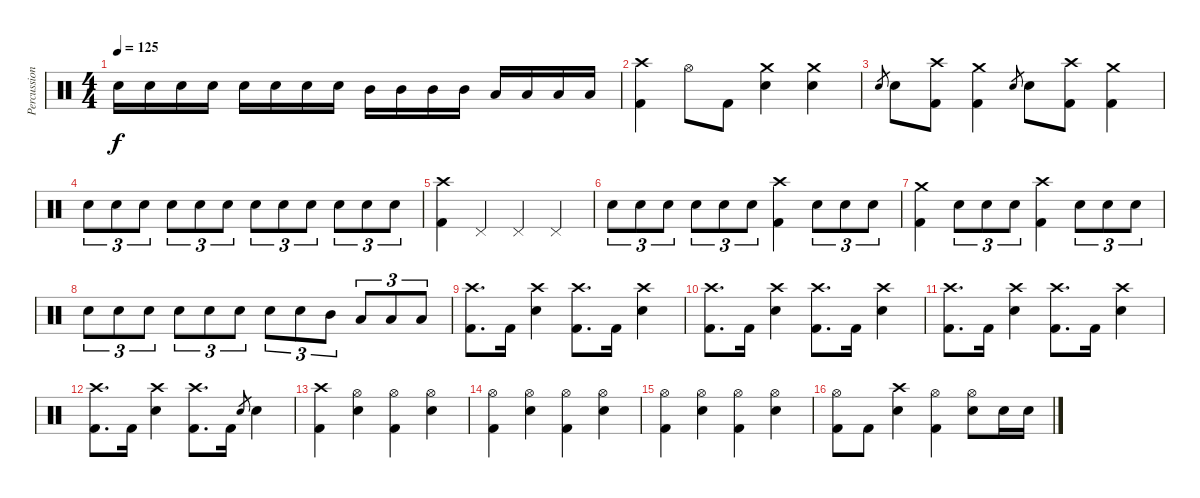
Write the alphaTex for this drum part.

\track ("Percussion" "Percussion") {instrument percussion}
\staff {score}
\articulation defaults
\ts (4 4)
\tempo 125
\clef neutral
\ks c "Electric Snare (hit)".16{dy f} "Electric Snare (hit)".16 "Electric Snare (hit)".16 "Electric Snare (hit)".16 "Electric Snare (hit)".16 "Electric Snare (hit)".16 "Electric Snare (hit)".16 "Electric Snare (hit)".16 "Mid Tom (hit)".16 "Mid Tom (hit)".16 "Mid Tom (hit)".16 "Mid Tom (hit)".16 "Low Tom (hit)".16 "Low Tom (hit)".16 "Low Tom (hit)".16 "Low Tom (hit)".16
|
("Kick (hit) 2" "Crash high (hit)").4 "Hi-Hat (open)".8 "Kick (hit) 2".8 ("Electric Snare (hit)" "Crash medium (hit)").4 ("Electric Snare (hit)" "Crash medium (hit)").4 |
"Electric Snare (hit)".8{gr} "Electric Snare (hit)".8 ("Kick (hit) 2" "Crash high (hit)").8 ("Kick (hit) 2" "Crash medium (hit)").4 "Electric Snare (hit)".8{gr} "Electric Snare (hit)".8 ("Kick (hit) 2" "Crash high (hit)").8 ("Kick (hit) 2" "Crash medium (hit)").4 |
"Electric Snare (hit)".8{tu (3 2)} "Electric Snare (hit)".8{tu (3 2)} "Electric Snare (hit)".8{tu (3 2)} "Electric Snare (hit)".8{tu (3 2)} "Electric Snare (hit)".8{tu (3 2)} "Electric Snare (hit)".8{tu (3 2)} "Electric Snare (hit)".8{tu (3 2)} "Electric Snare (hit)".8{tu (3 2)} "Electric Snare (hit)".8{tu (3 2)} "Electric Snare (hit)".8{tu (3 2)} "Electric Snare (hit)".8{tu (3 2)} "Electric Snare (hit)".8{tu (3 2)} |
("Kick (hit) 2" "Crash high (hit)").4 "Pedal Hi-Hat (hit)".4 "Pedal Hi-Hat (hit)".4 "Pedal Hi-Hat (hit)".4 |
"Electric Snare (hit)".8{tu (3 2)} "Electric Snare (hit)".8{tu (3 2)} "Electric Snare (hit)".8{tu (3 2)} "Electric Snare (hit)".8{tu (3 2)} "Electric Snare (hit)".8{tu (3 2)} "Electric Snare (hit)".8{tu (3 2)} ("Kick (hit) 2" "Crash high (hit)").4 "Electric Snare (hit)".8{tu (3 2)} "Electric Snare (hit)".8{tu (3 2)} "Electric Snare (hit)".8{tu (3 2)} |
("Kick (hit) 2" "Crash medium (hit)").4 "Electric Snare (hit)".8{tu (3 2)} "Electric Snare (hit)".8{tu (3 2)} "Electric Snare (hit)".8{tu (3 2)} ("Kick (hit) 2" "Crash high (hit)").4 "Electric Snare (hit)".8{tu (3 2)} "Electric Snare (hit)".8{tu (3 2)} "Electric Snare (hit)".8{tu (3 2)} |
"Electric Snare (hit)".8{tu (3 2)} "Electric Snare (hit)".8{tu (3 2)} "Electric Snare (hit)".8{tu (3 2)} "Electric Snare (hit)".8{tu (3 2)} "Electric Snare (hit)".8{tu (3 2)} "Electric Snare (hit)".8{tu (3 2)} "Electric Snare (hit)".8{tu (3 2)} "Electric Snare (hit)".8{tu (3 2)} "Mid Tom (hit)".8{tu (3 2)} "Low Tom (hit)".8{tu (3 2)} "Low Tom (hit)".8{tu (3 2)} "Low Tom (hit)".8{tu (3 2)} |
("Kick (hit) 2" "Crash high (hit)").8{d} "Kick (hit) 2".16 ("Electric Snare (hit)" "Crash high (hit)").4 ("Kick (hit) 2" "Crash high (hit)").8{d} "Kick (hit) 2".16 ("Electric Snare (hit)" "Crash high (hit)").4 |
("Kick (hit) 2" "Crash high (hit)").8{d} "Kick (hit) 2".16 ("Electric Snare (hit)" "Crash high (hit)").4 ("Kick (hit) 2" "Crash high (hit)").8{d} "Kick (hit) 2".16 ("Electric Snare (hit)" "Crash high (hit)").4 |
("Kick (hit) 2" "Crash high (hit)").8{d} "Kick (hit) 2".16 ("Electric Snare (hit)" "Crash high (hit)").4 ("Kick (hit) 2" "Crash high (hit)").8{d} "Kick (hit) 2".16 ("Electric Snare (hit)" "Crash high (hit)").4 |
("Kick (hit) 2" "Crash high (hit)").8{d} "Kick (hit) 2".16 ("Electric Snare (hit)" "Crash high (hit)").4 ("Kick (hit) 2" "Crash high (hit)").8{d} "Kick (hit) 2".16 "Electric Snare (hit)".8{gr} "Electric Snare (hit)".4 |
("Kick (hit) 2" "Crash high (hit)").4 ("Electric Snare (hit)" "Hi-Hat (open)").4 ("Kick (hit) 2" "Hi-Hat (open)").4 ("Electric Snare (hit)" "Hi-Hat (open)").4 |
("Kick (hit) 2" "Hi-Hat (open)").4 ("Electric Snare (hit)" "Hi-Hat (open)").4 ("Kick (hit) 2" "Hi-Hat (open)").4 ("Electric Snare (hit)" "Hi-Hat (open)").4 |
("Kick (hit) 2" "Hi-Hat (open)").4 ("Electric Snare (hit)" "Hi-Hat (open)").4 ("Kick (hit) 2" "Hi-Hat (open)").4 ("Electric Snare (hit)" "Hi-Hat (open)").4 |
("Kick (hit) 2" "Hi-Hat (open)").8 "Kick (hit) 2".8 ("Electric Snare (hit)" "Crash high (hit)").4 ("Kick (hit) 2" "Hi-Hat (open)").4 ("Electric Snare (hit)" "Hi-Hat (open)").8 "Electric Snare (hit)".16 "Electric Snare (hit)".16
